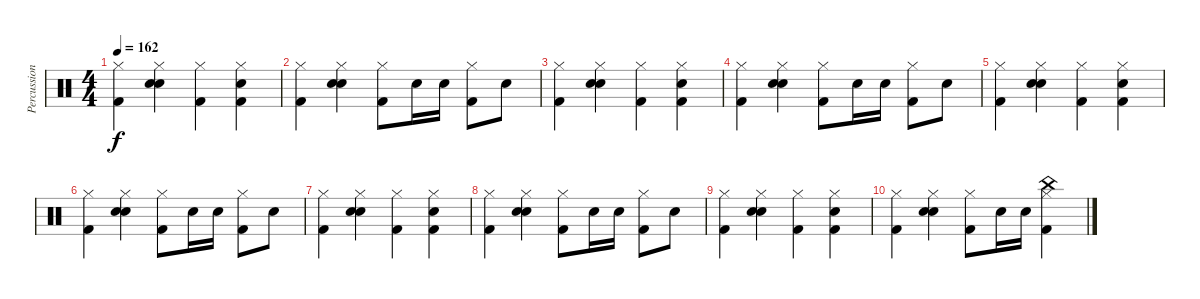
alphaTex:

\track ("Percussions" "Percussion") {instrument percussion}
\staff {score}
\articulation defaults
\ts (4 4)
\tempo 162
\clef neutral
\ks c
("Hi-Hat (closed)" "Kick (hit) 2").4{dy f} ("Hi-Hat (closed)" "Electric Snare (hit)" "Snare (hit) 2").4 ("Hi-Hat (closed)" "Kick (hit) 2").4 ("Hi-Hat (closed)" "Kick (hit) 2" "Electric Snare (hit)").4 |
("Hi-Hat (closed)" "Kick (hit) 2").4 ("Hi-Hat (closed)" "Electric Snare (hit)" "Snare (hit) 2").4 ("Hi-Hat (closed)" "Kick (hit) 2").8 "Electric Snare (hit)".16 "Electric Snare (hit)".16 ("Hi-Hat (closed)" "Kick (hit) 2").8 "Electric Snare (hit)".8 |
("Hi-Hat (closed)" "Kick (hit) 2").4 ("Hi-Hat (closed)" "Electric Snare (hit)" "Snare (hit) 2").4 ("Hi-Hat (closed)" "Kick (hit) 2").4 ("Hi-Hat (closed)" "Kick (hit) 2" "Electric Snare (hit)").4 |
("Hi-Hat (closed)" "Kick (hit) 2").4 ("Hi-Hat (closed)" "Electric Snare (hit)" "Snare (hit) 2").4 ("Hi-Hat (closed)" "Kick (hit) 2").8 "Electric Snare (hit)".16 "Electric Snare (hit)".16 ("Hi-Hat (closed)" "Kick (hit) 2").8 "Electric Snare (hit)".8 |
("Hi-Hat (closed)" "Kick (hit) 2").4 ("Hi-Hat (closed)" "Electric Snare (hit)" "Snare (hit) 2").4 ("Hi-Hat (closed)" "Kick (hit) 2").4 ("Hi-Hat (closed)" "Kick (hit) 2" "Electric Snare (hit)").4 |
("Hi-Hat (closed)" "Kick (hit) 2").4 ("Hi-Hat (closed)" "Electric Snare (hit)" "Snare (hit) 2").4 ("Hi-Hat (closed)" "Kick (hit) 2").8 "Electric Snare (hit)".16 "Electric Snare (hit)".16 ("Hi-Hat (closed)" "Kick (hit) 2").8 "Electric Snare (hit)".8 |
("Hi-Hat (closed)" "Kick (hit) 2").4 ("Hi-Hat (closed)" "Electric Snare (hit)" "Snare (hit) 2").4 ("Hi-Hat (closed)" "Kick (hit) 2").4 ("Hi-Hat (closed)" "Kick (hit) 2" "Electric Snare (hit)").4 |
("Hi-Hat (closed)" "Kick (hit) 2").4 ("Hi-Hat (closed)" "Electric Snare (hit)" "Snare (hit) 2").4 ("Hi-Hat (closed)" "Kick (hit) 2").8 "Electric Snare (hit)".16 "Electric Snare (hit)".16 ("Hi-Hat (closed)" "Kick (hit) 2").8 "Electric Snare (hit)".8 |
("Hi-Hat (closed)" "Kick (hit) 2").4 ("Hi-Hat (closed)" "Electric Snare (hit)" "Snare (hit) 2").4 ("Hi-Hat (closed)" "Kick (hit) 2").4 ("Hi-Hat (closed)" "Kick (hit) 2" "Electric Snare (hit)").4 |
("Hi-Hat (closed)" "Kick (hit) 2").4 ("Hi-Hat (closed)" "Electric Snare (hit)" "Snare (hit) 2").4 ("Hi-Hat (closed)" "Kick (hit) 2").8 "Electric Snare (hit)".16 "Electric Snare (hit)".16 ("Hi-Hat (closed)" "China (hit)" "Kick (hit) 2").4
